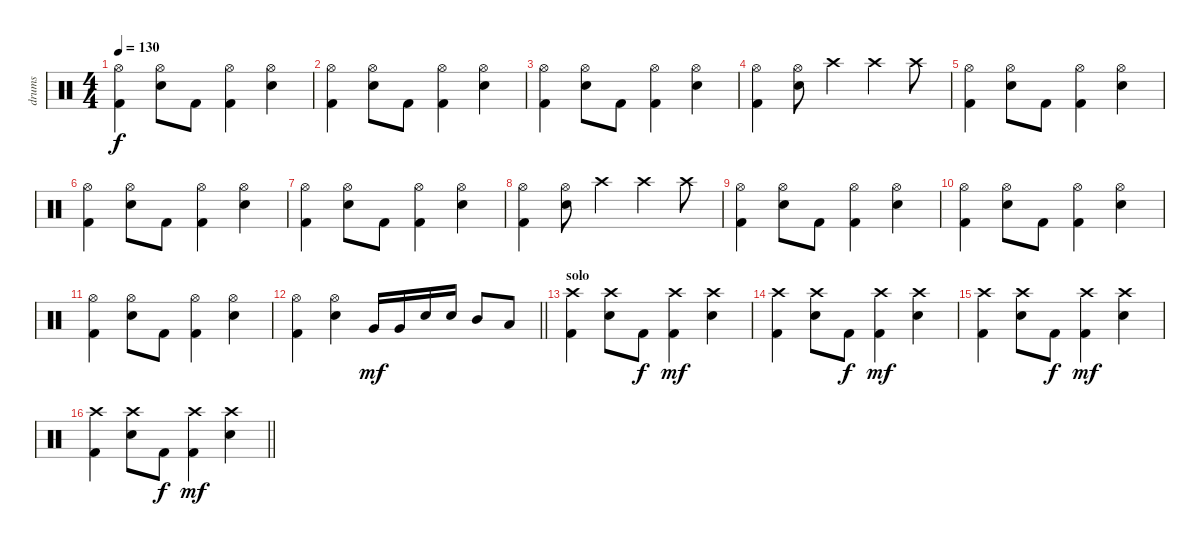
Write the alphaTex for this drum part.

\track ("drums" "drums") {instrument percussion}
\staff {score}
\articulation defaults
\ts (4 4)
\tempo 130
\clef neutral
\ks c
("Hi-Hat (open)" "Kick (hit) 2").4{dy f} ("Hi-Hat (open)" "Snare (hit) 2").8 "Kick (hit) 2".8 ("Hi-Hat (open)" "Kick (hit) 2").4 ("Hi-Hat (open)" "Snare (hit) 2").4 |
("Hi-Hat (open)" "Kick (hit) 2").4 ("Hi-Hat (open)" "Snare (hit) 2").8 "Kick (hit) 2".8 ("Hi-Hat (open)" "Kick (hit) 2").4 ("Hi-Hat (open)" "Snare (hit) 2").4 |
("Hi-Hat (open)" "Kick (hit) 2").4 ("Hi-Hat (open)" "Snare (hit) 2").8 "Kick (hit) 2".8 ("Hi-Hat (open)" "Kick (hit) 2").4 ("Hi-Hat (open)" "Snare (hit) 2").4 |
("Hi-Hat (open)" "Kick (hit) 2").4 ("Hi-Hat (open)" "Snare (hit) 2").8 "Crash high (hit)".4 "Crash high (hit)".4 "Crash high (hit)".8 |
("Hi-Hat (open)" "Kick (hit) 2").4 ("Hi-Hat (open)" "Snare (hit) 2").8 "Kick (hit) 2".8 ("Hi-Hat (open)" "Kick (hit) 2").4 ("Hi-Hat (open)" "Snare (hit) 2").4 |
("Hi-Hat (open)" "Kick (hit) 2").4 ("Hi-Hat (open)" "Snare (hit) 2").8 "Kick (hit) 2".8 ("Hi-Hat (open)" "Kick (hit) 2").4 ("Hi-Hat (open)" "Snare (hit) 2").4 |
("Hi-Hat (open)" "Kick (hit) 2").4 ("Hi-Hat (open)" "Snare (hit) 2").8 "Kick (hit) 2".8 ("Hi-Hat (open)" "Kick (hit) 2").4 ("Hi-Hat (open)" "Snare (hit) 2").4 |
("Hi-Hat (open)" "Kick (hit) 2").4 ("Hi-Hat (open)" "Snare (hit) 2").8 "Crash high (hit)".4 "Crash high (hit)".4 "Crash high (hit)".8 |
("Hi-Hat (open)" "Kick (hit) 2").4 ("Hi-Hat (open)" "Snare (hit) 2").8 "Kick (hit) 2".8 ("Hi-Hat (open)" "Kick (hit) 2").4 ("Hi-Hat (open)" "Snare (hit) 2").4 |
("Hi-Hat (open)" "Kick (hit) 2").4 ("Hi-Hat (open)" "Snare (hit) 2").8 "Kick (hit) 2".8 ("Hi-Hat (open)" "Kick (hit) 2").4 ("Hi-Hat (open)" "Snare (hit) 2").4 |
("Hi-Hat (open)" "Kick (hit) 2").4 ("Hi-Hat (open)" "Snare (hit) 2").8 "Kick (hit) 2".8 ("Hi-Hat (open)" "Kick (hit) 2").4 ("Hi-Hat (open)" "Snare (hit) 2").4 |
\barLineRight lightlight
("Hi-Hat (open)" "Kick (hit) 2").4 ("Hi-Hat (open)" "Snare (hit) 2").4 "Very Low Tom (hit)".16{dy mf} "Very Low Tom (hit)".16 "Snare (hit) 2".16 "Snare (hit) 2".16 "Mid Tom (hit)".8 "Low Tom (hit)".8 |
\section ("" "solo")
("Crash high (hit)" "Kick (hit) 2").4 ("Crash high (hit)" "Snare (hit) 2").8 "Kick (hit) 2".8{dy f} ("Crash high (hit)" "Kick (hit) 2").4{dy mf} ("Crash high (hit)" "Snare (hit) 2").4 |
("Crash high (hit)" "Kick (hit) 2").4 ("Crash high (hit)" "Snare (hit) 2").8 "Kick (hit) 2".8{dy f} ("Crash high (hit)" "Kick (hit) 2").4{dy mf} ("Crash high (hit)" "Snare (hit) 2").4 |
("Crash high (hit)" "Kick (hit) 2").4 ("Crash high (hit)" "Snare (hit) 2").8 "Kick (hit) 2".8{dy f} ("Crash high (hit)" "Kick (hit) 2").4{dy mf} ("Crash high (hit)" "Snare (hit) 2").4 |
\barLineRight lightlight
("Crash high (hit)" "Kick (hit) 2").4 ("Crash high (hit)" "Snare (hit) 2").8 "Kick (hit) 2".8{dy f} ("Crash high (hit)" "Kick (hit) 2").4{dy mf} ("Crash high (hit)" "Snare (hit) 2").4
